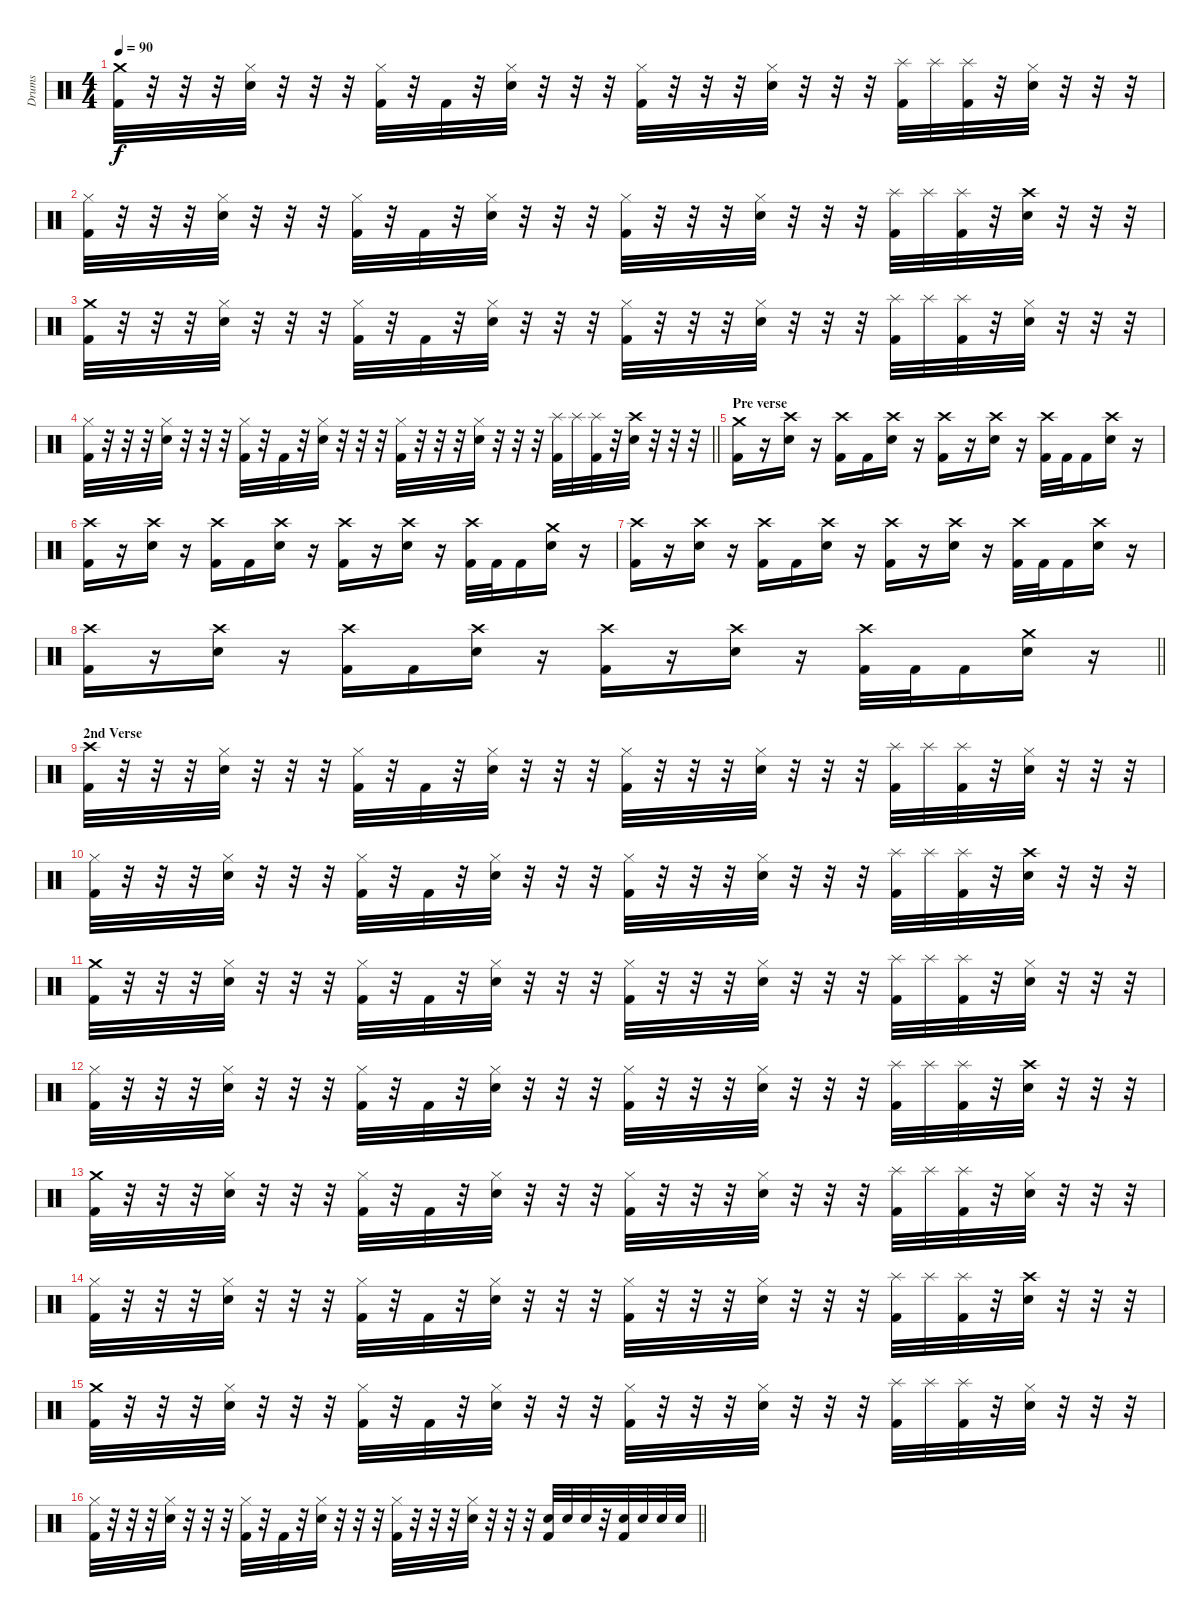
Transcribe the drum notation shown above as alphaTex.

\track ("Drums" "Drums") {instrument percussion}
\staff {score}
\articulation defaults
\ts (4 4)
\tempo 90
\clef neutral
\ks c
("Crash medium (hit)" "Kick (hit) 2").32{dy f} r.32 r.32 r.32 ("Hi-Hat (closed)" "Electric Snare (hit)").32 r.32 r.32 r.32 ("Hi-Hat (closed)" "Kick (hit) 2").32 r.32 "Kick (hit) 2".32 r.32 ("Hi-Hat (closed)" "Electric Snare (hit)").32 r.32 r.32 r.32 ("Hi-Hat (closed)" "Kick (hit) 2").32 r.32 r.32 r.32 ("Hi-Hat (closed)" "Electric Snare (hit)").32 r.32 r.32 r.32 ("Splash (hit)" "Kick (hit) 2").32 "Splash (hit)".32 ("Splash (hit)" "Kick (hit) 2").32 r.32 ("Hi-Hat (closed)" "Electric Snare (hit)").32 r.32 r.32 r.32 |
("Hi-Hat (closed)" "Kick (hit) 2").32 r.32 r.32 r.32 ("Hi-Hat (closed)" "Electric Snare (hit)").32 r.32 r.32 r.32 ("Hi-Hat (closed)" "Kick (hit) 2").32 r.32 "Kick (hit) 2".32 r.32 ("Hi-Hat (closed)" "Electric Snare (hit)").32 r.32 r.32 r.32 ("Hi-Hat (closed)" "Kick (hit) 2").32 r.32 r.32 r.32 ("Hi-Hat (closed)" "Electric Snare (hit)").32 r.32 r.32 r.32 ("Splash (hit)" "Kick (hit) 2").32 "Splash (hit)".32 ("Splash (hit)" "Kick (hit) 2").32 r.32 ("Crash high (hit)" "Electric Snare (hit)").32 r.32 r.32 r.32 |
("Crash medium (hit)" "Kick (hit) 2").32 r.32 r.32 r.32 ("Hi-Hat (closed)" "Electric Snare (hit)").32 r.32 r.32 r.32 ("Hi-Hat (closed)" "Kick (hit) 2").32 r.32 "Kick (hit) 2".32 r.32 ("Hi-Hat (closed)" "Electric Snare (hit)").32 r.32 r.32 r.32 ("Hi-Hat (closed)" "Kick (hit) 2").32 r.32 r.32 r.32 ("Hi-Hat (closed)" "Electric Snare (hit)").32 r.32 r.32 r.32 ("Splash (hit)" "Kick (hit) 2").32 "Splash (hit)".32 ("Splash (hit)" "Kick (hit) 2").32 r.32 ("Hi-Hat (closed)" "Electric Snare (hit)").32 r.32 r.32 r.32 |
\barLineRight lightlight
("Hi-Hat (closed)" "Kick (hit) 2").32 r.32 r.32 r.32 ("Hi-Hat (closed)" "Electric Snare (hit)").32 r.32 r.32 r.32 ("Hi-Hat (closed)" "Kick (hit) 2").32 r.32 "Kick (hit) 2".32 r.32 ("Hi-Hat (closed)" "Electric Snare (hit)").32 r.32 r.32 r.32 ("Hi-Hat (closed)" "Kick (hit) 2").32 r.32 r.32 r.32 ("Hi-Hat (closed)" "Electric Snare (hit)").32 r.32 r.32 r.32 ("Splash (hit)" "Kick (hit) 2").32 "Splash (hit)".32 ("Splash (hit)" "Kick (hit) 2").32 r.32 ("Crash high (hit)" "Electric Snare (hit)").32 r.32 r.32 r.32 |
\section ("" "Pre verse")
("Crash medium (hit)" "Kick (hit) 2").16 r.16 ("Crash high (hit)" "Electric Snare (hit)").16 r.16 ("Crash high (hit)" "Kick (hit) 2").16 "Kick (hit) 2".16 ("Crash high (hit)" "Electric Snare (hit)").16 r.16 ("Crash high (hit)" "Kick (hit) 2").16 r.16 ("Crash high (hit)" "Electric Snare (hit)").16 r.16 ("Crash high (hit)" "Kick (hit) 2").32 "Kick (hit) 2".32 "Kick (hit) 2".16 ("Crash high (hit)" "Electric Snare (hit)").16 r.16 |
("Crash high (hit)" "Kick (hit) 2").16 r.16 ("Crash high (hit)" "Electric Snare (hit)").16 r.16 ("Crash high (hit)" "Kick (hit) 2").16 "Kick (hit) 2".16 ("Crash high (hit)" "Electric Snare (hit)").16 r.16 ("Crash high (hit)" "Kick (hit) 2").16 r.16 ("Crash high (hit)" "Electric Snare (hit)").16 r.16 ("Crash high (hit)" "Kick (hit) 2").32 "Kick (hit) 2".32 "Kick (hit) 2".16 ("Crash medium (hit)" "Electric Snare (hit)").16 r.16 |
("Crash high (hit)" "Kick (hit) 2").16 r.16 ("Crash high (hit)" "Electric Snare (hit)").16 r.16 ("Crash high (hit)" "Kick (hit) 2").16 "Kick (hit) 2".16 ("Crash high (hit)" "Electric Snare (hit)").16 r.16 ("Crash high (hit)" "Kick (hit) 2").16 r.16 ("Crash high (hit)" "Electric Snare (hit)").16 r.16 ("Crash high (hit)" "Kick (hit) 2").32 "Kick (hit) 2".32 "Kick (hit) 2".16 ("Crash high (hit)" "Electric Snare (hit)").16 r.16 |
\barLineRight lightlight
("Crash high (hit)" "Kick (hit) 2").16 r.16 ("Crash high (hit)" "Electric Snare (hit)").16 r.16 ("Crash high (hit)" "Kick (hit) 2").16 "Kick (hit) 2".16 ("Crash high (hit)" "Electric Snare (hit)").16 r.16 ("Crash high (hit)" "Kick (hit) 2").16 r.16 ("Crash high (hit)" "Electric Snare (hit)").16 r.16 ("Crash high (hit)" "Kick (hit) 2").32 "Kick (hit) 2".32 "Kick (hit) 2".16 ("Crash medium (hit)" "Electric Snare (hit)").16 r.16 |
\section ("" "2nd Verse")
("Crash high (hit)" "Kick (hit) 2").32 r.32 r.32 r.32 ("Hi-Hat (closed)" "Electric Snare (hit)").32 r.32 r.32 r.32 ("Hi-Hat (closed)" "Kick (hit) 2").32 r.32 "Kick (hit) 2".32 r.32 ("Hi-Hat (closed)" "Electric Snare (hit)").32 r.32 r.32 r.32 ("Hi-Hat (closed)" "Kick (hit) 2").32 r.32 r.32 r.32 ("Hi-Hat (closed)" "Electric Snare (hit)").32 r.32 r.32 r.32 ("Splash (hit)" "Kick (hit) 2").32 "Splash (hit)".32 ("Splash (hit)" "Kick (hit) 2").32 r.32 ("Hi-Hat (closed)" "Electric Snare (hit)").32 r.32 r.32 r.32 |
("Hi-Hat (closed)" "Kick (hit) 2").32 r.32 r.32 r.32 ("Hi-Hat (closed)" "Electric Snare (hit)").32 r.32 r.32 r.32 ("Hi-Hat (closed)" "Kick (hit) 2").32 r.32 "Kick (hit) 2".32 r.32 ("Hi-Hat (closed)" "Electric Snare (hit)").32 r.32 r.32 r.32 ("Hi-Hat (closed)" "Kick (hit) 2").32 r.32 r.32 r.32 ("Hi-Hat (closed)" "Electric Snare (hit)").32 r.32 r.32 r.32 ("Splash (hit)" "Kick (hit) 2").32 "Splash (hit)".32 ("Splash (hit)" "Kick (hit) 2").32 r.32 ("Crash high (hit)" "Electric Snare (hit)").32 r.32 r.32 r.32 |
("Crash medium (hit)" "Kick (hit) 2").32 r.32 r.32 r.32 ("Hi-Hat (closed)" "Electric Snare (hit)").32 r.32 r.32 r.32 ("Hi-Hat (closed)" "Kick (hit) 2").32 r.32 "Kick (hit) 2".32 r.32 ("Hi-Hat (closed)" "Electric Snare (hit)").32 r.32 r.32 r.32 ("Hi-Hat (closed)" "Kick (hit) 2").32 r.32 r.32 r.32 ("Hi-Hat (closed)" "Electric Snare (hit)").32 r.32 r.32 r.32 ("Splash (hit)" "Kick (hit) 2").32 "Splash (hit)".32 ("Splash (hit)" "Kick (hit) 2").32 r.32 ("Hi-Hat (closed)" "Electric Snare (hit)").32 r.32 r.32 r.32 |
("Hi-Hat (closed)" "Kick (hit) 2").32 r.32 r.32 r.32 ("Hi-Hat (closed)" "Electric Snare (hit)").32 r.32 r.32 r.32 ("Hi-Hat (closed)" "Kick (hit) 2").32 r.32 "Kick (hit) 2".32 r.32 ("Hi-Hat (closed)" "Electric Snare (hit)").32 r.32 r.32 r.32 ("Hi-Hat (closed)" "Kick (hit) 2").32 r.32 r.32 r.32 ("Hi-Hat (closed)" "Electric Snare (hit)").32 r.32 r.32 r.32 ("Splash (hit)" "Kick (hit) 2").32 "Splash (hit)".32 ("Splash (hit)" "Kick (hit) 2").32 r.32 ("Crash high (hit)" "Electric Snare (hit)").32 r.32 r.32 r.32 |
("Crash medium (hit)" "Kick (hit) 2").32 r.32 r.32 r.32 ("Hi-Hat (closed)" "Electric Snare (hit)").32 r.32 r.32 r.32 ("Hi-Hat (closed)" "Kick (hit) 2").32 r.32 "Kick (hit) 2".32 r.32 ("Hi-Hat (closed)" "Electric Snare (hit)").32 r.32 r.32 r.32 ("Hi-Hat (closed)" "Kick (hit) 2").32 r.32 r.32 r.32 ("Hi-Hat (closed)" "Electric Snare (hit)").32 r.32 r.32 r.32 ("Splash (hit)" "Kick (hit) 2").32 "Splash (hit)".32 ("Splash (hit)" "Kick (hit) 2").32 r.32 ("Hi-Hat (closed)" "Electric Snare (hit)").32 r.32 r.32 r.32 |
("Hi-Hat (closed)" "Kick (hit) 2").32 r.32 r.32 r.32 ("Hi-Hat (closed)" "Electric Snare (hit)").32 r.32 r.32 r.32 ("Hi-Hat (closed)" "Kick (hit) 2").32 r.32 "Kick (hit) 2".32 r.32 ("Hi-Hat (closed)" "Electric Snare (hit)").32 r.32 r.32 r.32 ("Hi-Hat (closed)" "Kick (hit) 2").32 r.32 r.32 r.32 ("Hi-Hat (closed)" "Electric Snare (hit)").32 r.32 r.32 r.32 ("Splash (hit)" "Kick (hit) 2").32 "Splash (hit)".32 ("Splash (hit)" "Kick (hit) 2").32 r.32 ("Crash high (hit)" "Electric Snare (hit)").32 r.32 r.32 r.32 |
("Crash medium (hit)" "Kick (hit) 2").32 r.32 r.32 r.32 ("Hi-Hat (closed)" "Electric Snare (hit)").32 r.32 r.32 r.32 ("Hi-Hat (closed)" "Kick (hit) 2").32 r.32 "Kick (hit) 2".32 r.32 ("Hi-Hat (closed)" "Electric Snare (hit)").32 r.32 r.32 r.32 ("Hi-Hat (closed)" "Kick (hit) 2").32 r.32 r.32 r.32 ("Hi-Hat (closed)" "Electric Snare (hit)").32 r.32 r.32 r.32 ("Splash (hit)" "Kick (hit) 2").32 "Splash (hit)".32 ("Splash (hit)" "Kick (hit) 2").32 r.32 ("Hi-Hat (closed)" "Electric Snare (hit)").32 r.32 r.32 r.32 |
\barLineRight lightlight
("Hi-Hat (closed)" "Kick (hit) 2").32 r.32 r.32 r.32 ("Hi-Hat (closed)" "Electric Snare (hit)").32 r.32 r.32 r.32 ("Hi-Hat (closed)" "Kick (hit) 2").32 r.32 "Kick (hit) 2".32 r.32 ("Hi-Hat (closed)" "Electric Snare (hit)").32 r.32 r.32 r.32 ("Hi-Hat (closed)" "Kick (hit) 2").32 r.32 r.32 r.32 ("Hi-Hat (closed)" "Electric Snare (hit)").32 r.32 r.32 r.32 ("Electric Snare (hit)" "Kick (hit) 2").32 "Electric Snare (hit)".32 "Electric Snare (hit)".32 r.32 ("Electric Snare (hit)" "Kick (hit) 2").32 "Electric Snare (hit)".32 "Electric Snare (hit)".32 "Electric Snare (hit)".32
